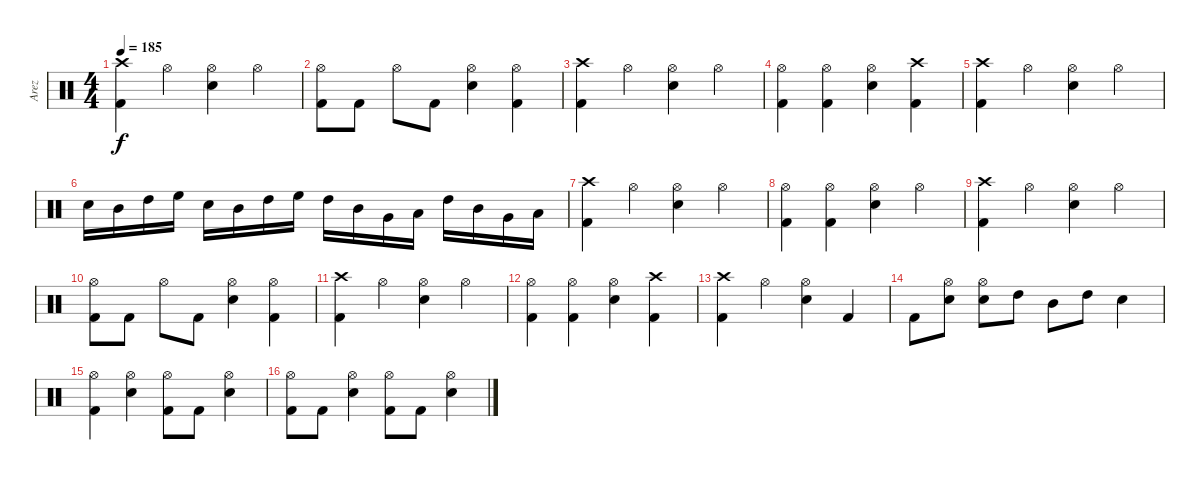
\track ("Arez" "Arez") {instrument percussion}
\staff {score}
\articulation defaults
\ts (4 4)
\tempo 185
\clef neutral
\ks c
("Crash high (hit)" "Kick (hit) 2").4{dy f} "Hi-Hat (open)".4 ("Electric Snare (hit)" "Hi-Hat (open)").4 "Hi-Hat (open)".4 |
("Kick (hit) 2" "Hi-Hat (open)").8 "Kick (hit) 2".8 "Hi-Hat (open)".8 "Kick (hit) 2".8 ("Electric Snare (hit)" "Hi-Hat (open)").4 ("Hi-Hat (open)" "Kick (hit) 2").4 |
("Crash high (hit)" "Kick (hit) 2").4 "Hi-Hat (open)".4 ("Electric Snare (hit)" "Hi-Hat (open)").4 "Hi-Hat (open)".4 |
("Kick (hit) 2" "Hi-Hat (open)").4 ("Kick (hit) 2" "Hi-Hat (open)").4 ("Hi-Hat (open)" "Electric Snare (hit)").4 ("Crash high (hit)" "Kick (hit) 2").4 |
("Crash high (hit)" "Kick (hit) 2").4 "Hi-Hat (open)".4 ("Electric Snare (hit)" "Hi-Hat (open)").4 "Hi-Hat (open)".4 |
"Electric Snare (hit)".16 "Mid Tom (hit)".16 "High Tom (hit)".16 "High Floor Tom (hit)".16 "Electric Snare (hit)".16 "Mid Tom (hit)".16 "High Tom (hit)".16 "High Floor Tom (hit)".16 "High Tom (hit)".16 "Mid Tom (hit)".16 "Very Low Tom (hit)".16 "Low Floor Tom (hit)".16 "High Tom (hit)".16 "Mid Tom (hit)".16 "Very Low Tom (hit)".16 "Low Floor Tom (hit)".16 |
("Crash high (hit)" "Kick (hit) 2").4 "Hi-Hat (open)".4 ("Electric Snare (hit)" "Hi-Hat (open)").4 "Hi-Hat (open)".4 |
("Kick (hit) 2" "Hi-Hat (open)").4 ("Kick (hit) 2" "Hi-Hat (open)").4 ("Hi-Hat (open)" "Electric Snare (hit)").4 "Hi-Hat (open)".4 |
("Crash high (hit)" "Kick (hit) 2").4 "Hi-Hat (open)".4 ("Electric Snare (hit)" "Hi-Hat (open)").4 "Hi-Hat (open)".4 |
("Kick (hit) 2" "Hi-Hat (open)").8 "Kick (hit) 2".8 "Hi-Hat (open)".8 "Kick (hit) 2".8 ("Electric Snare (hit)" "Hi-Hat (open)").4 ("Hi-Hat (open)" "Kick (hit) 2").4 |
("Crash high (hit)" "Kick (hit) 2").4 "Hi-Hat (open)".4 ("Electric Snare (hit)" "Hi-Hat (open)").4 "Hi-Hat (open)".4 |
("Kick (hit) 2" "Hi-Hat (open)").4 ("Kick (hit) 2" "Hi-Hat (open)").4 ("Hi-Hat (open)" "Electric Snare (hit)").4 ("Crash high (hit)" "Kick (hit) 2").4 |
("Crash high (hit)" "Kick (hit) 2").4 "Hi-Hat (open)".4 ("Electric Snare (hit)" "Hi-Hat (open)").4 "Kick (hit) 2".4 |
"Kick (hit) 2".8 ("Electric Snare (hit)" "Hi-Hat (open)").8 ("Electric Snare (hit)" "Hi-Hat (open)").8 "High Tom (hit)".8 "Mid Tom (hit)".8 "High Tom (hit)".8 "Electric Snare (hit)".4 |
("Hi-Hat (open)" "Kick (hit) 2").4 ("Hi-Hat (open)" "Electric Snare (hit)").4 ("Hi-Hat (open)" "Kick (hit) 2").8 "Kick (hit) 2".8 ("Electric Snare (hit)" "Hi-Hat (open)").4 |
("Hi-Hat (open)" "Kick (hit) 2").8 "Kick (hit) 2".8 ("Hi-Hat (open)" "Electric Snare (hit)").4 ("Hi-Hat (open)" "Kick (hit) 2").8 "Kick (hit) 2".8 ("Hi-Hat (open)" "Electric Snare (hit)").4
